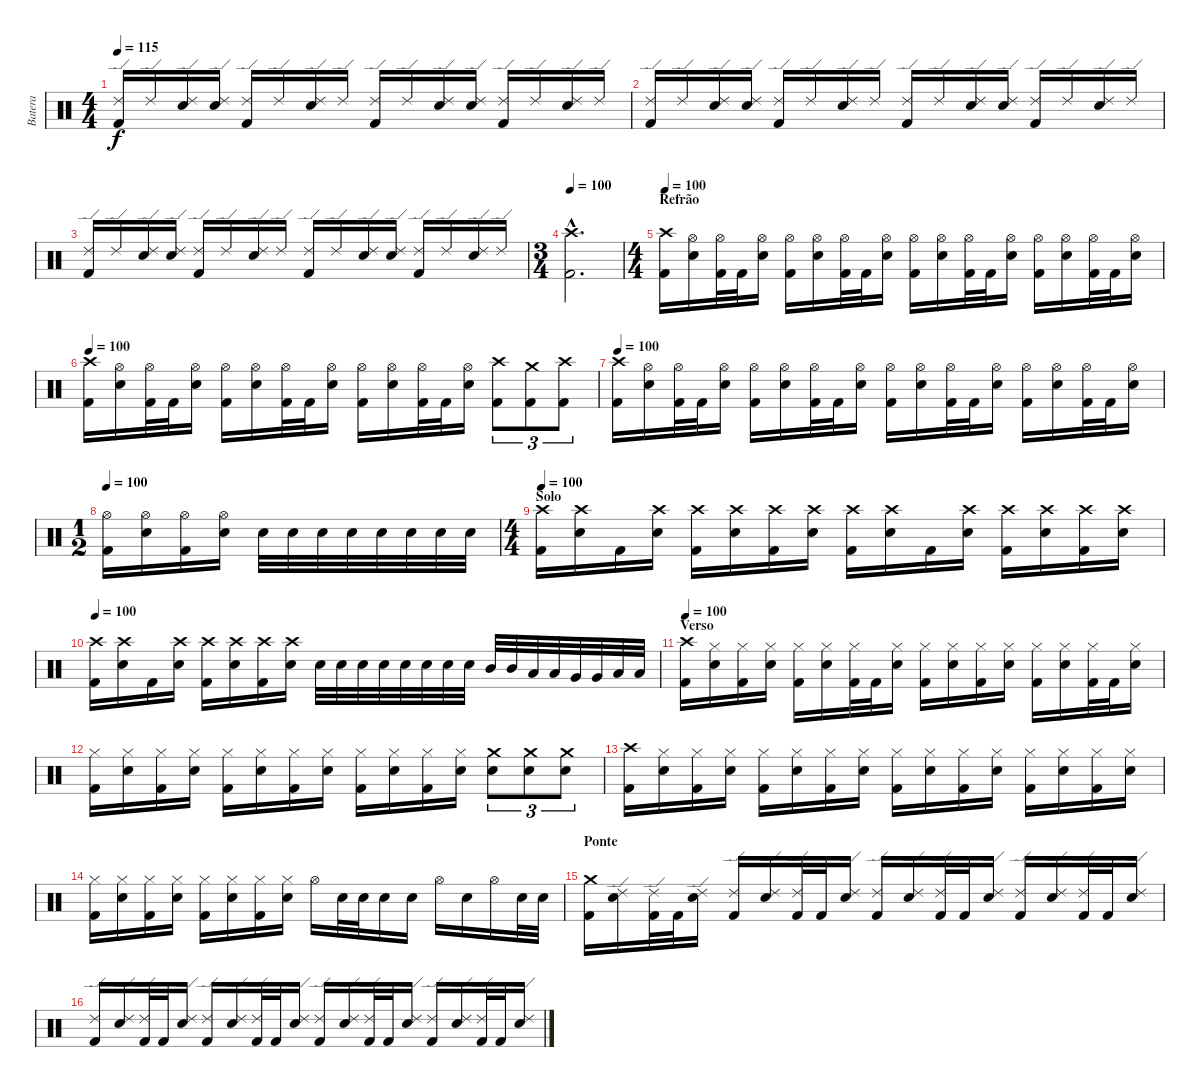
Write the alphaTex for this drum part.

\track ("Batera" "Batera") {instrument percussion}
\staff {score}
\articulation defaults
\ts (4 4)
\tempo 115
\clef neutral
\ks c
("Ride (edge) 2" "Kick (hit) 2").16{dy f} "Ride (edge) 2".16 ("Ride (edge) 2" "Snare (hit) 2").16 ("Ride (edge) 2" "Snare (hit) 2").16 ("Ride (edge) 2" "Kick (hit) 2").16 "Ride (edge) 2".16 ("Ride (edge) 2" "Snare (hit) 2").16 "Ride (edge) 2".16 ("Ride (edge) 2" "Kick (hit) 2").16 "Ride (edge) 2".16 ("Ride (edge) 2" "Snare (hit) 2").16 ("Ride (edge) 2" "Snare (hit) 2").16 ("Ride (edge) 2" "Kick (hit) 2").16 "Ride (edge) 2".16 ("Ride (edge) 2" "Snare (hit) 2").16 "Ride (edge) 2".16 |
("Ride (edge) 2" "Kick (hit) 2").16 "Ride (edge) 2".16 ("Ride (edge) 2" "Snare (hit) 2").16 ("Ride (edge) 2" "Snare (hit) 2").16 ("Ride (edge) 2" "Kick (hit) 2").16 "Ride (edge) 2".16 ("Ride (edge) 2" "Snare (hit) 2").16 "Ride (edge) 2".16 ("Ride (edge) 2" "Kick (hit) 2").16 "Ride (edge) 2".16 ("Ride (edge) 2" "Snare (hit) 2").16 ("Ride (edge) 2" "Snare (hit) 2").16 ("Ride (edge) 2" "Kick (hit) 2").16 "Ride (edge) 2".16 ("Ride (edge) 2" "Snare (hit) 2").16 "Ride (edge) 2".16 |
("Ride (edge) 2" "Kick (hit) 2").16 "Ride (edge) 2".16 ("Ride (edge) 2" "Snare (hit) 2").16 ("Ride (edge) 2" "Snare (hit) 2").16 ("Ride (edge) 2" "Kick (hit) 2").16 "Ride (edge) 2".16 ("Ride (edge) 2" "Snare (hit) 2").16 "Ride (edge) 2".16 ("Ride (edge) 2" "Kick (hit) 2").16 "Ride (edge) 2".16 ("Ride (edge) 2" "Snare (hit) 2").16 ("Ride (edge) 2" "Snare (hit) 2").16 ("Ride (edge) 2" "Kick (hit) 2").16 "Ride (edge) 2".16 ("Ride (edge) 2" "Snare (hit) 2").16 "Ride (edge) 2".16 |
\ts (3 4)
\tempo 100
("Crash high (hit)"{hac} "Kick (hit) 2"{hac}).2{d} |
\ts (4 4)
\section ("" "Refrão")
\tempo 100
("Crash high (hit)" "Kick (hit) 2").16 ("Hi-Hat (open)" "Snare (hit) 2").16 ("Hi-Hat (open)" "Kick (hit) 2").32 "Kick (hit) 2".32 ("Hi-Hat (open)" "Snare (hit) 2").16 ("Hi-Hat (open)" "Kick (hit) 2").16 ("Hi-Hat (open)" "Snare (hit) 2").16 ("Hi-Hat (open)" "Kick (hit) 2").32 "Kick (hit) 2".32 ("Hi-Hat (open)" "Snare (hit) 2").16 ("Hi-Hat (open)" "Kick (hit) 2").16 ("Hi-Hat (open)" "Snare (hit) 2").16 ("Hi-Hat (open)" "Kick (hit) 2").32 "Kick (hit) 2".32 ("Hi-Hat (open)" "Snare (hit) 2").16 ("Hi-Hat (open)" "Kick (hit) 2").16 ("Hi-Hat (open)" "Snare (hit) 2").16 ("Hi-Hat (open)" "Kick (hit) 2").32 "Kick (hit) 2".32 ("Hi-Hat (open)" "Snare (hit) 2").16 |
\tempo 100
("Crash high (hit)" "Kick (hit) 2").16 ("Hi-Hat (open)" "Snare (hit) 2").16 ("Hi-Hat (open)" "Kick (hit) 2").32 "Kick (hit) 2".32 ("Hi-Hat (open)" "Snare (hit) 2").16 ("Hi-Hat (open)" "Kick (hit) 2").16 ("Hi-Hat (open)" "Snare (hit) 2").16 ("Hi-Hat (open)" "Kick (hit) 2").32 "Kick (hit) 2".32 ("Hi-Hat (open)" "Snare (hit) 2").16 ("Hi-Hat (open)" "Kick (hit) 2").16 ("Hi-Hat (open)" "Snare (hit) 2").16 ("Hi-Hat (open)" "Kick (hit) 2").32 "Kick (hit) 2".32 ("Hi-Hat (open)" "Snare (hit) 2").16 ("Crash high (hit)" "Kick (hit) 2").8{tu (3 2)} ("Crash medium (hit)" "Kick (hit) 2").8{tu (3 2)} ("Crash high (hit)" "Kick (hit) 2").8{tu (3 2)} |
\tempo 100
("Crash high (hit)" "Kick (hit) 2").16 ("Hi-Hat (open)" "Snare (hit) 2").16 ("Hi-Hat (open)" "Kick (hit) 2").32 "Kick (hit) 2".32 ("Hi-Hat (open)" "Snare (hit) 2").16 ("Hi-Hat (open)" "Kick (hit) 2").16 ("Hi-Hat (open)" "Snare (hit) 2").16 ("Hi-Hat (open)" "Kick (hit) 2").32 "Kick (hit) 2".32 ("Hi-Hat (open)" "Snare (hit) 2").16 ("Hi-Hat (open)" "Kick (hit) 2").16 ("Hi-Hat (open)" "Snare (hit) 2").16 ("Hi-Hat (open)" "Kick (hit) 2").32 "Kick (hit) 2".32 ("Hi-Hat (open)" "Snare (hit) 2").16 ("Hi-Hat (open)" "Kick (hit) 2").16 ("Hi-Hat (open)" "Snare (hit) 2").16 ("Hi-Hat (open)" "Kick (hit) 2").32 "Kick (hit) 2".32 ("Hi-Hat (open)" "Snare (hit) 2").16 |
\ts (1 2)
\tempo 100
("Hi-Hat (open)" "Kick (hit) 2").16 ("Hi-Hat (open)" "Snare (hit) 2").16 ("Hi-Hat (open)" "Kick (hit) 2").16 ("Hi-Hat (open)" "Snare (hit) 2").16 "Snare (hit) 2".32 "Snare (hit) 2".32 "Snare (hit) 2".32 "Snare (hit) 2".32 "Snare (hit) 2".32 "Snare (hit) 2".32 "Snare (hit) 2".32 "Snare (hit) 2".32 |
\ts (4 4)
\section ("" "Solo")
\tempo 100
("Crash high (hit)" "Kick (hit) 2").16 ("Crash high (hit)" "Snare (hit) 2").16 "Kick (hit) 2".16 ("Crash high (hit)" "Snare (hit) 2").16 ("Crash high (hit)" "Kick (hit) 2").16 ("Crash high (hit)" "Snare (hit) 2").16 ("Crash high (hit)" "Kick (hit) 2").16 ("Crash high (hit)" "Snare (hit) 2").16 ("Crash high (hit)" "Kick (hit) 2").16 ("Crash high (hit)" "Snare (hit) 2").16 "Kick (hit) 2".16 ("Crash high (hit)" "Snare (hit) 2").16 ("Crash high (hit)" "Kick (hit) 2").16 ("Crash high (hit)" "Snare (hit) 2").16 ("Crash high (hit)" "Kick (hit) 2").16 ("Crash high (hit)" "Snare (hit) 2").16 |
\tempo 100
("Crash high (hit)" "Kick (hit) 2").16 ("Crash high (hit)" "Snare (hit) 2").16 "Kick (hit) 2".16 ("Crash high (hit)" "Snare (hit) 2").16 ("Crash high (hit)" "Kick (hit) 2").16 ("Crash high (hit)" "Snare (hit) 2").16 ("Crash high (hit)" "Kick (hit) 2").16 ("Crash high (hit)" "Snare (hit) 2").16 "Snare (hit) 2".32 "Snare (hit) 2".32 "Snare (hit) 2".32 "Snare (hit) 2".32 "Snare (hit) 2".32 "Snare (hit) 2".32 "Snare (hit) 2".32 "Snare (hit) 2".32 "Mid Tom (hit)".32 "Mid Tom (hit)".32 "Low Tom (hit)".32 "Low Tom (hit)".32 "Very Low Tom (hit)".32 "Very Low Tom (hit)".32 "Low Floor Tom (hit)".32 "Low Floor Tom (hit)".32 |
\section ("" "Verso")
\tempo 100
("Crash high (hit)" "Kick (hit) 2").16 ("Hi-Hat (closed)" "Snare (hit) 2").16 ("Hi-Hat (closed)" "Kick (hit) 2").16 ("Hi-Hat (closed)" "Snare (hit) 2").16 ("Hi-Hat (closed)" "Kick (hit) 2").16 ("Hi-Hat (closed)" "Snare (hit) 2").16 ("Hi-Hat (closed)" "Kick (hit) 2").32 "Kick (hit) 2".32 ("Hi-Hat (closed)" "Snare (hit) 2").16 ("Hi-Hat (closed)" "Kick (hit) 2").16 ("Hi-Hat (closed)" "Snare (hit) 2").16 ("Hi-Hat (closed)" "Kick (hit) 2").16 ("Hi-Hat (closed)" "Snare (hit) 2").16 ("Hi-Hat (closed)" "Kick (hit) 2").16 ("Hi-Hat (closed)" "Snare (hit) 2").16 ("Hi-Hat (closed)" "Kick (hit) 2").32 "Kick (hit) 2".32 ("Hi-Hat (closed)" "Snare (hit) 2").16 |
("Hi-Hat (closed)" "Kick (hit) 2").16 ("Hi-Hat (closed)" "Snare (hit) 2").16 ("Hi-Hat (closed)" "Kick (hit) 2").16 ("Hi-Hat (closed)" "Snare (hit) 2").16 ("Hi-Hat (closed)" "Kick (hit) 2").16 ("Hi-Hat (closed)" "Snare (hit) 2").16 ("Hi-Hat (closed)" "Kick (hit) 2").16 ("Hi-Hat (closed)" "Snare (hit) 2").16 ("Hi-Hat (closed)" "Kick (hit) 2").16 ("Hi-Hat (closed)" "Snare (hit) 2").16 ("Hi-Hat (closed)" "Kick (hit) 2").16 ("Hi-Hat (closed)" "Snare (hit) 2").16 ("Crash medium (hit)" "Snare (hit) 2").8{tu (3 2)} ("Crash medium (hit)" "Snare (hit) 2").8{tu (3 2)} ("Crash medium (hit)" "Snare (hit) 2").8{tu (3 2)} |
("Crash high (hit)" "Kick (hit) 2").16 ("Hi-Hat (closed)" "Snare (hit) 2").16 ("Hi-Hat (closed)" "Kick (hit) 2").16 ("Hi-Hat (closed)" "Snare (hit) 2").16 ("Hi-Hat (closed)" "Kick (hit) 2").16 ("Hi-Hat (closed)" "Snare (hit) 2").16 ("Hi-Hat (closed)" "Kick (hit) 2").16 ("Hi-Hat (closed)" "Snare (hit) 2").16 ("Hi-Hat (closed)" "Kick (hit) 2").16 ("Hi-Hat (closed)" "Snare (hit) 2").16 ("Hi-Hat (closed)" "Kick (hit) 2").16 ("Hi-Hat (closed)" "Snare (hit) 2").16 ("Hi-Hat (closed)" "Kick (hit) 2").16 ("Hi-Hat (closed)" "Snare (hit) 2").16 ("Hi-Hat (closed)" "Kick (hit) 2").16 ("Hi-Hat (closed)" "Snare (hit) 2").16 |
("Hi-Hat (closed)" "Kick (hit) 2").16 ("Hi-Hat (closed)" "Snare (hit) 2").16 ("Hi-Hat (closed)" "Kick (hit) 2").16 ("Hi-Hat (closed)" "Snare (hit) 2").16 ("Hi-Hat (closed)" "Kick (hit) 2").16 ("Hi-Hat (closed)" "Snare (hit) 2").16 ("Hi-Hat (closed)" "Kick (hit) 2").16 ("Hi-Hat (closed)" "Snare (hit) 2").16 "Hi-Hat (open)".16 "Snare (hit) 2".32 "Snare (hit) 2".32 "Snare (hit) 2".16 "Snare (hit) 2".16 "Hi-Hat (open)".16 "Snare (hit) 2".16 "Hi-Hat (open)".16 "Snare (hit) 2".32 "Snare (hit) 2".32 |
\section ("" "Ponte")
("Crash medium (hit)" "Kick (hit) 2").16 ("Ride (edge) 2" "Snare (hit) 2").16 ("Ride (edge) 2" "Kick (hit) 2").32 "Kick (hit) 2".32 ("Ride (edge) 2" "Snare (hit) 2").16 ("Ride (edge) 2" "Kick (hit) 2").16 ("Ride (edge) 2" "Snare (hit) 2").16 ("Ride (edge) 2" "Kick (hit) 2").32 "Kick (hit) 2".32 ("Ride (edge) 2" "Snare (hit) 2").16 ("Ride (edge) 2" "Kick (hit) 2").16 ("Ride (edge) 2" "Snare (hit) 2").16 ("Ride (edge) 2" "Kick (hit) 2").32 "Kick (hit) 2".32 ("Ride (edge) 2" "Snare (hit) 2").16 ("Ride (edge) 2" "Kick (hit) 2").16 ("Ride (edge) 2" "Snare (hit) 2").16 ("Ride (edge) 2" "Kick (hit) 2").32 "Kick (hit) 2".32 ("Ride (edge) 2" "Snare (hit) 2").16 |
("Ride (edge) 2" "Kick (hit) 2").16 ("Ride (edge) 2" "Snare (hit) 2").16 ("Ride (edge) 2" "Kick (hit) 2").32 "Kick (hit) 2".32 ("Ride (edge) 2" "Snare (hit) 2").16 ("Ride (edge) 2" "Kick (hit) 2").16 ("Ride (edge) 2" "Snare (hit) 2").16 ("Ride (edge) 2" "Kick (hit) 2").32 "Kick (hit) 2".32 ("Ride (edge) 2" "Snare (hit) 2").16 ("Ride (edge) 2" "Kick (hit) 2").16 ("Ride (edge) 2" "Snare (hit) 2").16 ("Ride (edge) 2" "Kick (hit) 2").32 "Kick (hit) 2".32 ("Ride (edge) 2" "Snare (hit) 2").16 ("Ride (edge) 2" "Kick (hit) 2").16 ("Ride (edge) 2" "Snare (hit) 2").16 ("Ride (edge) 2" "Kick (hit) 2").32 "Kick (hit) 2".32 ("Ride (edge) 2" "Snare (hit) 2").16
